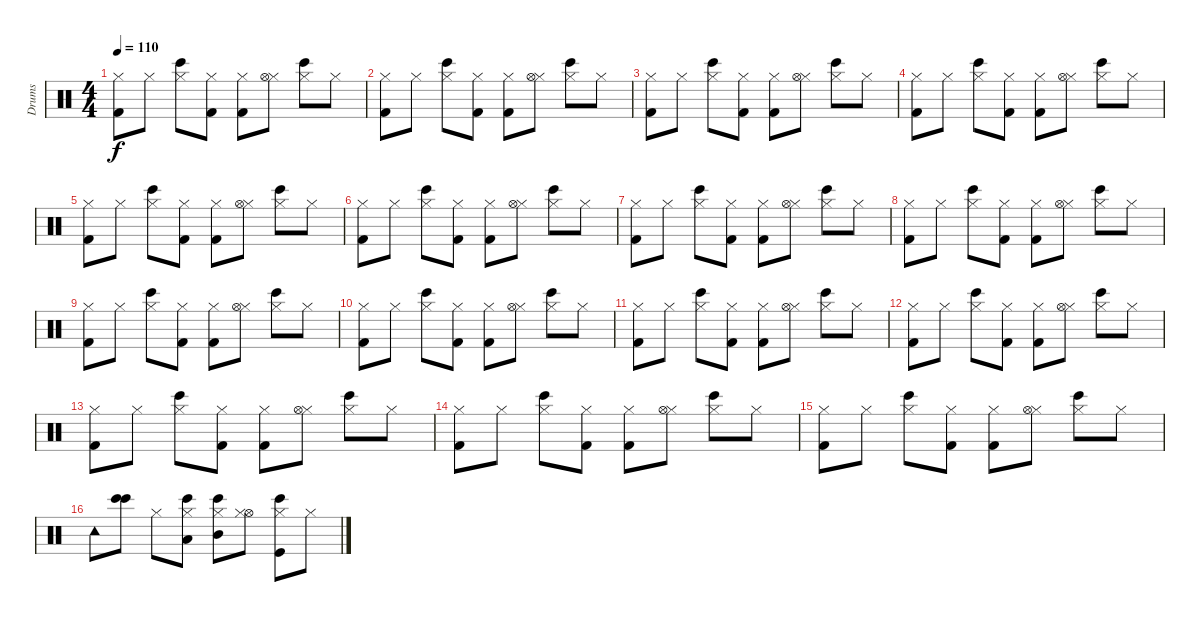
\track ("Drums" "Drums") {instrument percussion}
\staff {score}
\articulation defaults
\ts (4 4)
\tempo 110
\clef neutral
\ks c
("Kick (hit) 2" "Hi-Hat (closed)").8{dy f} "Hi-Hat (closed)".8 ("Bongo High (hit)" "Hi-Hat (closed)").8 ("Kick (hit) 2" "Hi-Hat (closed)").8 ("Kick (hit) 2" "Hi-Hat (closed)").8 ("Hi-Hat (closed)" "Hi-Hat (open)").8 ("Bongo High (hit)" "Hi-Hat (closed)").8 "Hi-Hat (closed)".8 |
("Kick (hit) 2" "Hi-Hat (closed)").8 "Hi-Hat (closed)".8 ("Bongo High (hit)" "Hi-Hat (closed)").8 ("Kick (hit) 2" "Hi-Hat (closed)").8 ("Kick (hit) 2" "Hi-Hat (closed)").8 ("Hi-Hat (closed)" "Hi-Hat (open)").8 ("Bongo High (hit)" "Hi-Hat (closed)").8 "Hi-Hat (closed)".8 |
("Kick (hit) 2" "Hi-Hat (closed)").8 "Hi-Hat (closed)".8 ("Bongo High (hit)" "Hi-Hat (closed)").8 ("Kick (hit) 2" "Hi-Hat (closed)").8 ("Kick (hit) 2" "Hi-Hat (closed)").8 ("Hi-Hat (closed)" "Hi-Hat (open)").8 ("Bongo High (hit)" "Hi-Hat (closed)").8 "Hi-Hat (closed)".8 |
("Kick (hit) 2" "Hi-Hat (closed)").8 "Hi-Hat (closed)".8 ("Bongo High (hit)" "Hi-Hat (closed)").8 ("Kick (hit) 2" "Hi-Hat (closed)").8 ("Kick (hit) 2" "Hi-Hat (closed)").8 ("Hi-Hat (closed)" "Hi-Hat (open)").8 ("Bongo High (hit)" "Hi-Hat (closed)").8 "Hi-Hat (closed)".8 |
("Kick (hit) 2" "Hi-Hat (closed)").8 "Hi-Hat (closed)".8 ("Bongo High (hit)" "Hi-Hat (closed)").8 ("Kick (hit) 2" "Hi-Hat (closed)").8 ("Kick (hit) 2" "Hi-Hat (closed)").8 ("Hi-Hat (closed)" "Hi-Hat (open)").8 ("Bongo High (hit)" "Hi-Hat (closed)").8 "Hi-Hat (closed)".8 |
("Kick (hit) 2" "Hi-Hat (closed)").8 "Hi-Hat (closed)".8 ("Bongo High (hit)" "Hi-Hat (closed)").8 ("Kick (hit) 2" "Hi-Hat (closed)").8 ("Kick (hit) 2" "Hi-Hat (closed)").8 ("Hi-Hat (closed)" "Hi-Hat (open)").8 ("Bongo High (hit)" "Hi-Hat (closed)").8 "Hi-Hat (closed)".8 |
("Kick (hit) 2" "Hi-Hat (closed)").8 "Hi-Hat (closed)".8 ("Bongo High (hit)" "Hi-Hat (closed)").8 ("Kick (hit) 2" "Hi-Hat (closed)").8 ("Kick (hit) 2" "Hi-Hat (closed)").8 ("Hi-Hat (closed)" "Hi-Hat (open)").8 ("Bongo High (hit)" "Hi-Hat (closed)").8 "Hi-Hat (closed)".8 |
("Kick (hit) 2" "Hi-Hat (closed)").8 "Hi-Hat (closed)".8 ("Bongo High (hit)" "Hi-Hat (closed)").8 ("Kick (hit) 2" "Hi-Hat (closed)").8 ("Kick (hit) 2" "Hi-Hat (closed)").8 ("Hi-Hat (closed)" "Hi-Hat (open)").8 ("Bongo High (hit)" "Hi-Hat (closed)").8 "Hi-Hat (closed)".8 |
("Kick (hit) 2" "Hi-Hat (closed)").8 "Hi-Hat (closed)".8 ("Bongo High (hit)" "Hi-Hat (closed)").8 ("Kick (hit) 2" "Hi-Hat (closed)").8 ("Kick (hit) 2" "Hi-Hat (closed)").8 ("Hi-Hat (closed)" "Hi-Hat (open)").8 ("Bongo High (hit)" "Hi-Hat (closed)").8 "Hi-Hat (closed)".8 |
("Kick (hit) 2" "Hi-Hat (closed)").8 "Hi-Hat (closed)".8 ("Bongo High (hit)" "Hi-Hat (closed)").8 ("Kick (hit) 2" "Hi-Hat (closed)").8 ("Kick (hit) 2" "Hi-Hat (closed)").8 ("Hi-Hat (closed)" "Hi-Hat (open)").8 ("Bongo High (hit)" "Hi-Hat (closed)").8 "Hi-Hat (closed)".8 |
("Kick (hit) 2" "Hi-Hat (closed)").8 "Hi-Hat (closed)".8 ("Bongo High (hit)" "Hi-Hat (closed)").8 ("Kick (hit) 2" "Hi-Hat (closed)").8 ("Kick (hit) 2" "Hi-Hat (closed)").8 ("Hi-Hat (closed)" "Hi-Hat (open)").8 ("Bongo High (hit)" "Hi-Hat (closed)").8 "Hi-Hat (closed)".8 |
("Kick (hit) 2" "Hi-Hat (closed)").8 "Hi-Hat (closed)".8 ("Bongo High (hit)" "Hi-Hat (closed)").8 ("Kick (hit) 2" "Hi-Hat (closed)").8 ("Kick (hit) 2" "Hi-Hat (closed)").8 ("Hi-Hat (closed)" "Hi-Hat (open)").8 ("Bongo High (hit)" "Hi-Hat (closed)").8 "Hi-Hat (closed)".8 |
("Kick (hit) 2" "Hi-Hat (closed)").8 "Hi-Hat (closed)".8 ("Bongo High (hit)" "Hi-Hat (closed)").8 ("Kick (hit) 2" "Hi-Hat (closed)").8 ("Kick (hit) 2" "Hi-Hat (closed)").8 ("Hi-Hat (closed)" "Hi-Hat (open)").8 ("Bongo High (hit)" "Hi-Hat (closed)").8 "Hi-Hat (closed)".8 |
("Kick (hit) 2" "Hi-Hat (closed)").8 "Hi-Hat (closed)".8 ("Bongo High (hit)" "Hi-Hat (closed)").8 ("Kick (hit) 2" "Hi-Hat (closed)").8 ("Kick (hit) 2" "Hi-Hat (closed)").8 ("Hi-Hat (closed)" "Hi-Hat (open)").8 ("Bongo High (hit)" "Hi-Hat (closed)").8 "Hi-Hat (closed)".8 |
("Kick (hit) 2" "Hi-Hat (closed)").8 "Hi-Hat (closed)".8 ("Bongo High (hit)" "Hi-Hat (closed)").8 ("Kick (hit) 2" "Hi-Hat (closed)").8 ("Kick (hit) 2" "Hi-Hat (closed)").8 ("Hi-Hat (closed)" "Hi-Hat (open)").8 ("Bongo High (hit)" "Hi-Hat (closed)").8 "Hi-Hat (closed)".8 |
"Tambourine (hit)".8 ("Bongo High (hit)" "Bongo High (hit)").8 "Hi-Hat (closed)".8 ("Bongo High (hit)" "Low Tom (hit)" "Hi-Hat (closed)").8 ("Bongo High (hit)" "Mid Tom (hit)" "Hi-Hat (closed)").8 ("Hi-Hat (open)" "Hi-Hat (closed)").8 ("Bongo High (hit)" "Kick (hit)" "Hi-Hat (closed)").8 "Hi-Hat (closed)".8
